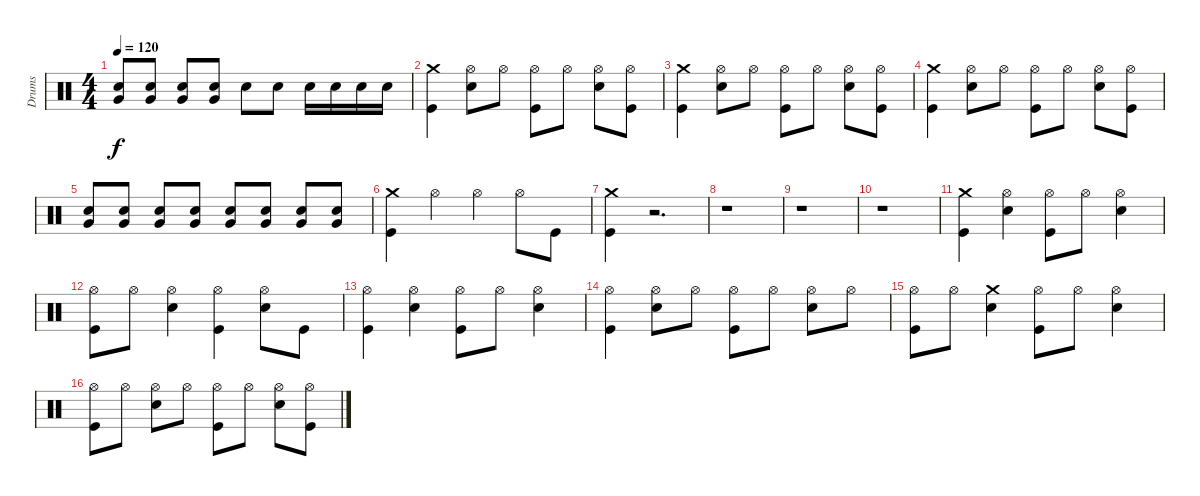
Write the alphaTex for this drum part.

\track ("Drums" "Drums") {instrument percussion}
\staff {score}
\articulation defaults
\ts (4 4)
\tempo 120
\clef neutral
\ks c
("Electric Snare (hit)" "Very Low Tom (hit)").8{dy f} ("Electric Snare (hit)" "Very Low Tom (hit)").8 ("Electric Snare (hit)" "Very Low Tom (hit)").8 ("Electric Snare (hit)" "Very Low Tom (hit)").8 "Electric Snare (hit)".8 "Electric Snare (hit)".8 "Electric Snare (hit)".16 "Electric Snare (hit)".16 "Electric Snare (hit)".16 "Electric Snare (hit)".16 |
("Kick (hit)" "Crash medium (hit)").4 ("Electric Snare (hit)" "Hi-Hat (open)").8 "Hi-Hat (open)".8 ("Kick (hit)" "Hi-Hat (open)").8 "Hi-Hat (open)".8 ("Electric Snare (hit)" "Hi-Hat (open)").8 ("Kick (hit)" "Hi-Hat (open)").8 |
("Kick (hit)" "Crash medium (hit)").4 ("Electric Snare (hit)" "Hi-Hat (open)").8 "Hi-Hat (open)".8 ("Kick (hit)" "Hi-Hat (open)").8 "Hi-Hat (open)".8 ("Electric Snare (hit)" "Hi-Hat (open)").8 ("Kick (hit)" "Hi-Hat (open)").8 |
("Kick (hit)" "Crash medium (hit)").4 ("Electric Snare (hit)" "Hi-Hat (open)").8 "Hi-Hat (open)".8 ("Kick (hit)" "Hi-Hat (open)").8 "Hi-Hat (open)".8 ("Electric Snare (hit)" "Hi-Hat (open)").8 ("Kick (hit)" "Hi-Hat (open)").8 |
("Electric Snare (hit)" "Very Low Tom (hit)").8 ("Electric Snare (hit)" "Very Low Tom (hit)").8 ("Electric Snare (hit)" "Very Low Tom (hit)").8 ("Electric Snare (hit)" "Very Low Tom (hit)").8 ("Electric Snare (hit)" "Very Low Tom (hit)").8 ("Electric Snare (hit)" "Very Low Tom (hit)").8 ("Electric Snare (hit)" "Very Low Tom (hit)").8 ("Electric Snare (hit)" "Very Low Tom (hit)").8 |
("Kick (hit)" "Crash medium (hit)").4 "Hi-Hat (open)".4 "Hi-Hat (open)".4 "Hi-Hat (open)".8 "Kick (hit)".8 |
("Kick (hit)" "Crash medium (hit)").4 r.2{d} |
r.1 |
r.1 |
r.1 |
("Kick (hit)" "Crash medium (hit)").4 ("Electric Snare (hit)" "Hi-Hat (open)").4 ("Kick (hit)" "Hi-Hat (open)").8 "Hi-Hat (open)".8 ("Electric Snare (hit)" "Hi-Hat (open)").4 |
("Kick (hit)" "Hi-Hat (open)").8 "Hi-Hat (open)".8 ("Electric Snare (hit)" "Hi-Hat (open)").4 ("Kick (hit)" "Hi-Hat (open)").4 ("Electric Snare (hit)" "Hi-Hat (open)").8 "Kick (hit)".8 |
("Kick (hit)" "Hi-Hat (open)").4 ("Electric Snare (hit)" "Hi-Hat (open)").4 ("Kick (hit)" "Hi-Hat (open)").8 "Hi-Hat (open)".8 ("Electric Snare (hit)" "Hi-Hat (open)").4 |
("Kick (hit)" "Hi-Hat (open)").4 ("Electric Snare (hit)" "Hi-Hat (open)").8 "Hi-Hat (open)".8 ("Kick (hit)" "Hi-Hat (open)").8 "Hi-Hat (open)".8 ("Electric Snare (hit)" "Hi-Hat (open)").8 "Hi-Hat (open)".8 |
("Kick (hit)" "Hi-Hat (open)").8 "Hi-Hat (open)".8 ("Electric Snare (hit)" "Crash medium (hit)").4 ("Kick (hit)" "Hi-Hat (open)").8 "Hi-Hat (open)".8 ("Electric Snare (hit)" "Hi-Hat (open)").4 |
("Kick (hit)" "Hi-Hat (open)").8 "Hi-Hat (open)".8 ("Electric Snare (hit)" "Hi-Hat (open)").8 "Hi-Hat (open)".8 ("Kick (hit)" "Hi-Hat (open)").8 "Hi-Hat (open)".8 ("Electric Snare (hit)" "Hi-Hat (open)").8 ("Kick (hit)" "Hi-Hat (open)").8
